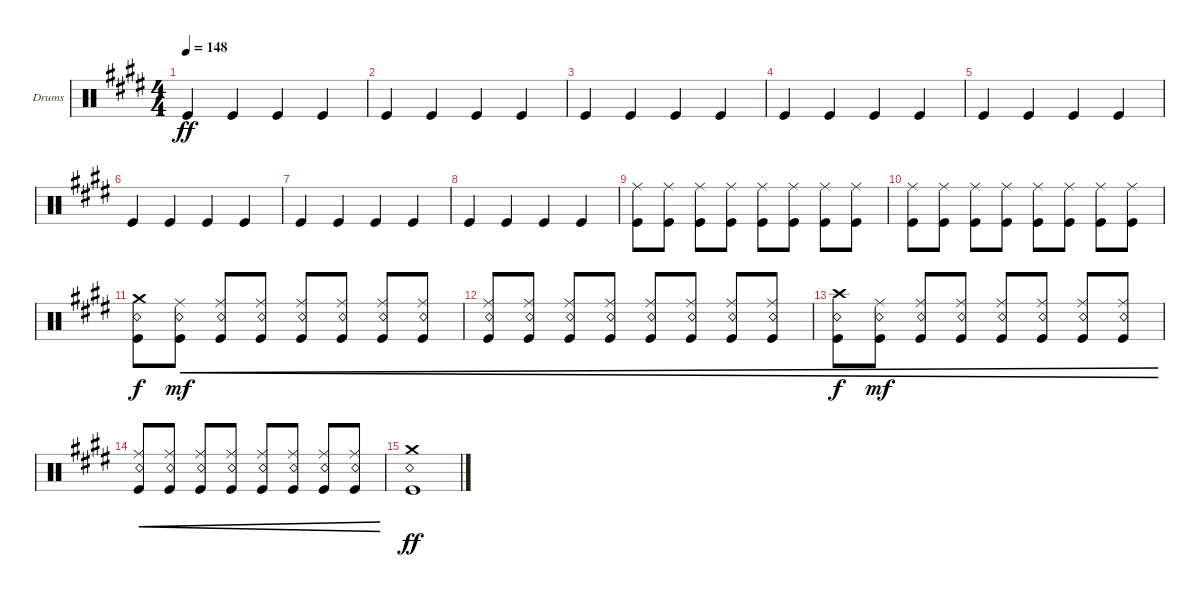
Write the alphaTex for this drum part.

\bracketExtendMode groupsimilarinstruments
\firstSystemTrackNameOrientation horizontal
\otherSystemsTrackNameOrientation horizontal
\track ("Drums" "Drums") {instrument percussion}
\staff {score}
\articulation defaults
\ts (4 4)
\tempo 148
\clef neutral
\ks e "Kick (hit)".4{dy ff} "Kick (hit)".4 "Kick (hit)".4 "Kick (hit)".4
|
"Kick (hit)".4 "Kick (hit)".4 "Kick (hit)".4 "Kick (hit)".4 |
"Kick (hit)".4 "Kick (hit)".4 "Kick (hit)".4 "Kick (hit)".4 |
"Kick (hit)".4 "Kick (hit)".4 "Kick (hit)".4 "Kick (hit)".4 |
"Kick (hit)".4 "Kick (hit)".4 "Kick (hit)".4 "Kick (hit)".4 |
"Kick (hit)".4 "Kick (hit)".4 "Kick (hit)".4 "Kick (hit)".4 |
"Kick (hit)".4 "Kick (hit)".4 "Kick (hit)".4 "Kick (hit)".4 |
"Kick (hit)".4 "Kick (hit)".4 "Kick (hit)".4 "Kick (hit)".4 |
("Kick (hit)" "Ride (middle)").8 ("Kick (hit)" "Ride (middle)").8 ("Kick (hit)" "Ride (middle)").8 ("Kick (hit)" "Ride (middle)").8 ("Kick (hit)" "Ride (middle)").8 ("Kick (hit)" "Ride (middle)").8 ("Kick (hit)" "Ride (middle)").8 ("Kick (hit)" "Ride (middle)").8 |
("Kick (hit)" "Ride (middle)").8 ("Kick (hit)" "Ride (middle)").8 ("Kick (hit)" "Ride (middle)").8 ("Kick (hit)" "Ride (middle)").8 ("Kick (hit)" "Ride (middle)").8 ("Kick (hit)" "Ride (middle)").8 ("Kick (hit)" "Ride (middle)").8 ("Kick (hit)" "Ride (middle)").8 |
("Snare (rim shot)" "Crash medium (hit)" "Kick (hit)").8{dy f} ("Snare (rim shot)" "Kick (hit)" "Ride (middle)").8{cre dy mf} ("Snare (rim shot)" "Kick (hit)" "Ride (middle)").8{cre} ("Snare (rim shot)" "Kick (hit)" "Ride (middle)").8{cre} ("Snare (rim shot)" "Kick (hit)" "Ride (middle)").8{cre} ("Snare (rim shot)" "Kick (hit)" "Ride (middle)").8{cre} ("Snare (rim shot)" "Kick (hit)" "Ride (middle)").8{cre} ("Snare (rim shot)" "Kick (hit)" "Ride (middle)").8{cre} |
("Snare (rim shot)" "Kick (hit)" "Ride (middle)").8{cre} ("Snare (rim shot)" "Kick (hit)" "Ride (middle)").8{cre} ("Snare (rim shot)" "Kick (hit)" "Ride (middle)").8{cre} ("Snare (rim shot)" "Kick (hit)" "Ride (middle)").8{cre} ("Snare (rim shot)" "Kick (hit)" "Ride (middle)").8{cre} ("Snare (rim shot)" "Kick (hit)" "Ride (middle)").8{cre} ("Snare (rim shot)" "Kick (hit)" "Ride (middle)").8{cre} ("Snare (rim shot)" "Kick (hit)" "Ride (middle)").8{cre} |
("Snare (rim shot)" "Kick (hit)" "Crash high (hit)").8{cre dy f} ("Snare (rim shot)" "Kick (hit)" "Ride (middle)").8{cre dy mf} ("Snare (rim shot)" "Kick (hit)" "Ride (middle)").8{cre} ("Snare (rim shot)" "Kick (hit)" "Ride (middle)").8{cre} ("Snare (rim shot)" "Kick (hit)" "Ride (middle)").8{cre} ("Snare (rim shot)" "Kick (hit)" "Ride (middle)").8{cre} ("Snare (rim shot)" "Kick (hit)" "Ride (middle)").8{cre} ("Snare (rim shot)" "Kick (hit)" "Ride (middle)").8{cre} |
("Snare (rim shot)" "Kick (hit)" "Ride (middle)").8{cre} ("Snare (rim shot)" "Kick (hit)" "Ride (middle)").8{cre} ("Snare (rim shot)" "Kick (hit)" "Ride (middle)").8{cre} ("Snare (rim shot)" "Kick (hit)" "Ride (middle)").8{cre} ("Snare (rim shot)" "Kick (hit)" "Ride (middle)").8{cre} ("Snare (rim shot)" "Kick (hit)" "Ride (middle)").8{cre} ("Snare (rim shot)" "Kick (hit)" "Ride (middle)").8{cre} ("Snare (rim shot)" "Kick (hit)" "Ride (middle)").8{cre} |
("Kick (hit)" "Snare (rim shot)" "Crash medium (hit)").1{dy ff}
